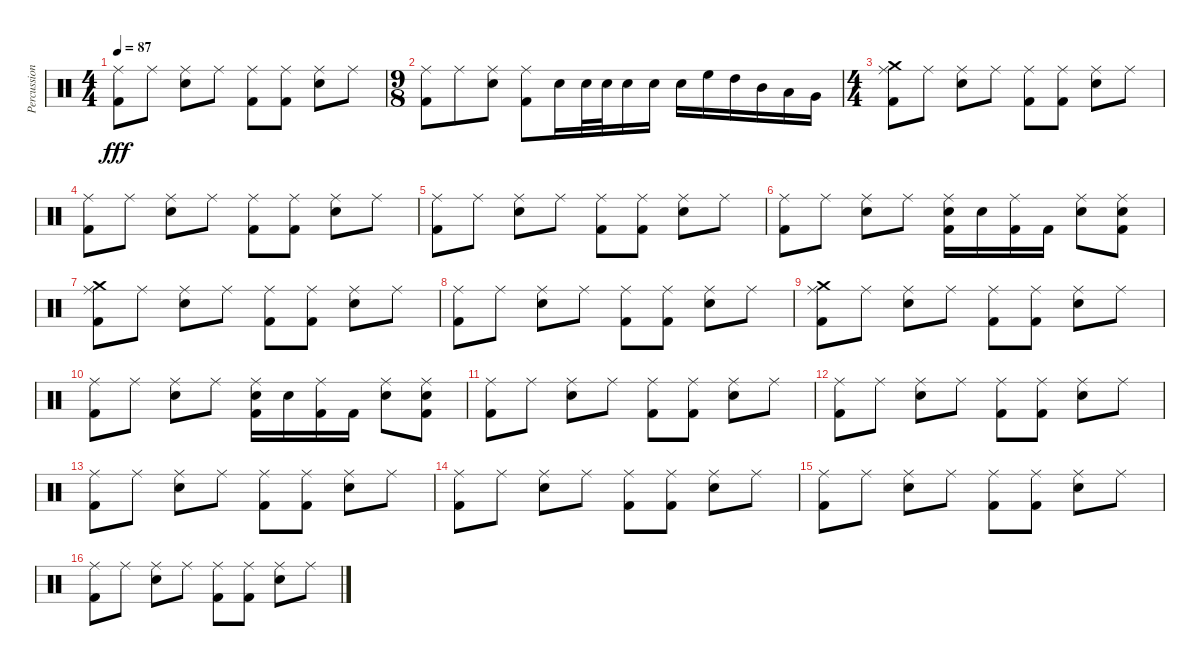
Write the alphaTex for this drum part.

\track ("Percussion" "Percussion") {instrument percussion}
\staff {score}
\articulation defaults
\ts (4 4)
\tempo 87
\clef neutral
\ks c
("Ride (middle)" "Kick (hit) 2").8{dy fff} "Ride (middle)".8 ("Ride (middle)" "Electric Snare (hit)").8 "Ride (middle)".8 ("Ride (middle)" "Kick (hit) 2").8 ("Ride (middle)" "Kick (hit) 2").8 ("Ride (middle)" "Electric Snare (hit)").8 "Ride (middle)".8 |
\ts (9 8)
("Ride (middle)" "Kick (hit) 2").8 "Ride (middle)".8 ("Ride (middle)" "Electric Snare (hit)").8 ("Ride (middle)" "Kick (hit) 2").8 "Electric Snare (hit)".16 "Electric Snare (hit)".32 "Electric Snare (hit)".32 "Electric Snare (hit)".16 "Electric Snare (hit)".16 "Electric Snare (hit)".16 "High Floor Tom (hit)".16 "High Tom (hit)".16 "Mid Tom (hit)".16 "Low Tom (hit)".16 "Very Low Tom (hit)".16 |
\ts (4 4)
("Ride (middle)" "Crash medium (hit)" "Kick (hit) 2").8 "Ride (middle)".8 ("Ride (middle)" "Electric Snare (hit)").8 "Ride (middle)".8 ("Ride (middle)" "Kick (hit) 2").8 ("Ride (middle)" "Kick (hit) 2").8 ("Ride (middle)" "Electric Snare (hit)").8 "Ride (middle)".8 |
("Ride (middle)" "Kick (hit) 2").8 "Ride (middle)".8 ("Ride (middle)" "Electric Snare (hit)").8 "Ride (middle)".8 ("Ride (middle)" "Kick (hit) 2").8 ("Ride (middle)" "Kick (hit) 2").8 ("Ride (middle)" "Electric Snare (hit)").8 "Ride (middle)".8 |
("Ride (middle)" "Kick (hit) 2").8 "Ride (middle)".8 ("Ride (middle)" "Electric Snare (hit)").8 "Ride (middle)".8 ("Ride (middle)" "Kick (hit) 2").8 ("Ride (middle)" "Kick (hit) 2").8 ("Ride (middle)" "Electric Snare (hit)").8 "Ride (middle)".8 |
("Ride (middle)" "Kick (hit) 2").8 "Ride (middle)".8 ("Ride (middle)" "Electric Snare (hit)").8 "Ride (middle)".8 ("Ride (middle)" "Electric Snare (hit)" "Kick (hit) 2").16 "Electric Snare (hit)".16 ("Ride (middle)" "Kick (hit) 2").16 "Kick (hit) 2".16 ("Ride (middle)" "Electric Snare (hit)").8 ("Ride (middle)" "Electric Snare (hit)" "Kick (hit) 2").8 |
("Ride (middle)" "Crash medium (hit)" "Kick (hit) 2").8 "Ride (middle)".8 ("Ride (middle)" "Electric Snare (hit)").8 "Ride (middle)".8 ("Ride (middle)" "Kick (hit) 2").8 ("Ride (middle)" "Kick (hit) 2").8 ("Ride (middle)" "Electric Snare (hit)").8 "Ride (middle)".8 |
("Ride (middle)" "Kick (hit) 2").8 "Ride (middle)".8 ("Ride (middle)" "Electric Snare (hit)").8 "Ride (middle)".8 ("Ride (middle)" "Kick (hit) 2").8 ("Ride (middle)" "Kick (hit) 2").8 ("Ride (middle)" "Electric Snare (hit)").8 "Ride (middle)".8 |
("Ride (middle)" "Crash medium (hit)" "Kick (hit) 2").8 "Ride (middle)".8 ("Ride (middle)" "Electric Snare (hit)").8 "Ride (middle)".8 ("Ride (middle)" "Kick (hit) 2").8 ("Ride (middle)" "Kick (hit) 2").8 ("Ride (middle)" "Electric Snare (hit)").8 "Ride (middle)".8 |
("Ride (middle)" "Kick (hit) 2").8 "Ride (middle)".8 ("Ride (middle)" "Electric Snare (hit)").8 "Ride (middle)".8 ("Ride (middle)" "Electric Snare (hit)" "Kick (hit) 2").16 "Electric Snare (hit)".16 ("Ride (middle)" "Kick (hit) 2").16 "Kick (hit) 2".16 ("Ride (middle)" "Electric Snare (hit)").8 ("Ride (middle)" "Electric Snare (hit)" "Kick (hit) 2").8 |
("Ride (middle)" "Kick (hit) 2").8 "Ride (middle)".8 ("Ride (middle)" "Electric Snare (hit)").8 "Ride (middle)".8 ("Ride (middle)" "Kick (hit) 2").8 ("Ride (middle)" "Kick (hit) 2").8 ("Ride (middle)" "Electric Snare (hit)").8 "Ride (middle)".8 |
("Ride (middle)" "Kick (hit) 2").8 "Ride (middle)".8 ("Ride (middle)" "Electric Snare (hit)").8 "Ride (middle)".8 ("Ride (middle)" "Kick (hit) 2").8 ("Ride (middle)" "Kick (hit) 2").8 ("Ride (middle)" "Electric Snare (hit)").8 "Ride (middle)".8 |
("Ride (middle)" "Kick (hit) 2").8 "Ride (middle)".8 ("Ride (middle)" "Electric Snare (hit)").8 "Ride (middle)".8 ("Ride (middle)" "Kick (hit) 2").8 ("Ride (middle)" "Kick (hit) 2").8 ("Ride (middle)" "Electric Snare (hit)").8 "Ride (middle)".8 |
("Ride (middle)" "Kick (hit) 2").8 "Ride (middle)".8 ("Ride (middle)" "Electric Snare (hit)").8 "Ride (middle)".8 ("Ride (middle)" "Kick (hit) 2").8 ("Ride (middle)" "Kick (hit) 2").8 ("Ride (middle)" "Electric Snare (hit)").8 "Ride (middle)".8 |
("Ride (middle)" "Kick (hit) 2").8 "Ride (middle)".8 ("Ride (middle)" "Electric Snare (hit)").8 "Ride (middle)".8 ("Ride (middle)" "Kick (hit) 2").8 ("Ride (middle)" "Kick (hit) 2").8 ("Ride (middle)" "Electric Snare (hit)").8 "Ride (middle)".8 |
("Ride (middle)" "Kick (hit) 2").8 "Ride (middle)".8 ("Ride (middle)" "Electric Snare (hit)").8 "Ride (middle)".8 ("Ride (middle)" "Kick (hit) 2").8 ("Ride (middle)" "Kick (hit) 2").8 ("Ride (middle)" "Electric Snare (hit)").8 "Ride (middle)".8
